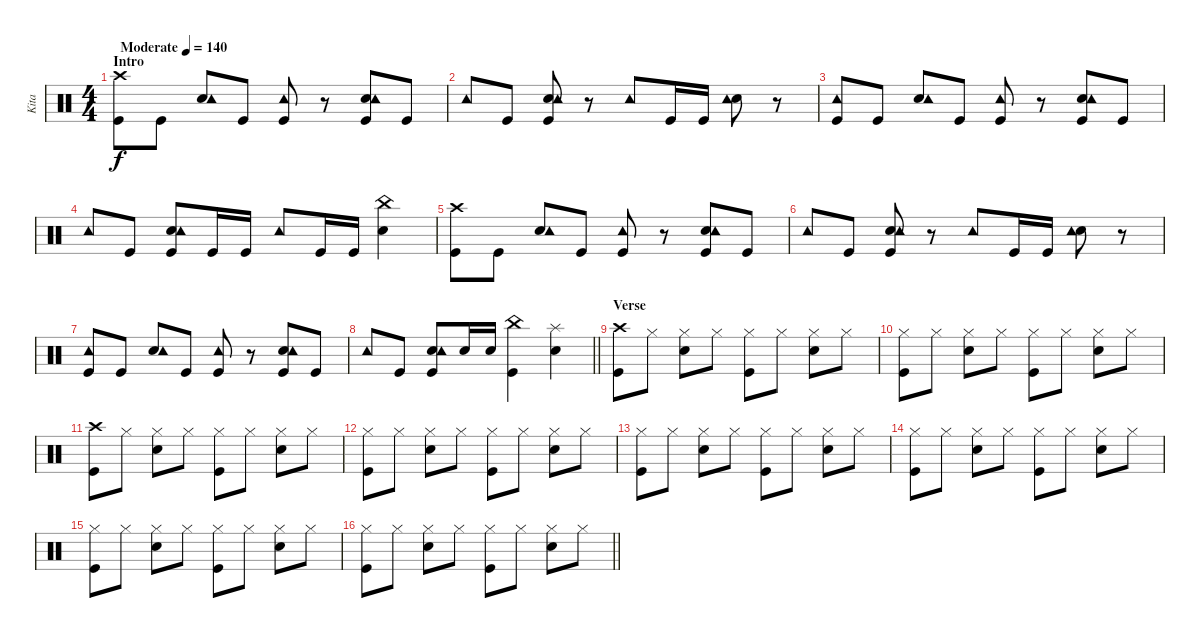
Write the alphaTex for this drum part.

\track ("Kita" "Kita") {instrument percussion}
\staff {score}
\articulation defaults
\ts (4 4)
\section ("" "Intro")
\tempo (140 "Moderate")
\clef neutral
\ks c
("Kick (hit)" "Crash high (hit)").8{dy f} "Kick (hit)".8 ("Snare (hit) 2" "Tambourine (hit)").8 "Kick (hit)".8 ("Kick (hit)" "Tambourine (hit)").8 r.8 ("Kick (hit)" "Snare (hit) 2" "Tambourine (hit)").8 "Kick (hit)".8 |
"Tambourine (hit)".8 "Kick (hit)".8 ("Kick (hit)" "Snare (hit) 2" "Tambourine (hit)").8 r.8 "Tambourine (hit)".8 "Kick (hit)".16 "Kick (hit)".16 ("Snare (hit) 2" "Tambourine (hit)").8 r.8 |
("Kick (hit)" "Tambourine (hit)").8 "Kick (hit)".8 ("Snare (hit) 2" "Tambourine (hit)").8 "Kick (hit)".8 ("Kick (hit)" "Tambourine (hit)").8 r.8 ("Kick (hit)" "Snare (hit) 2" "Tambourine (hit)").8 "Kick (hit)".8 |
"Tambourine (hit)".8 "Kick (hit)".8 ("Kick (hit)" "Snare (hit) 2" "Tambourine (hit)").8 "Kick (hit)".16 "Kick (hit)".16 "Tambourine (hit)".8 "Kick (hit)".16 "Kick (hit)".16 ("Snare (hit) 2" "China (hit)").4 |
("Kick (hit)" "Crash high (hit)").8 "Kick (hit)".8 ("Snare (hit) 2" "Tambourine (hit)").8 "Kick (hit)".8 ("Kick (hit)" "Tambourine (hit)").8 r.8 ("Kick (hit)" "Snare (hit) 2" "Tambourine (hit)").8 "Kick (hit)".8 |
"Tambourine (hit)".8 "Kick (hit)".8 ("Kick (hit)" "Snare (hit) 2" "Tambourine (hit)").8 r.8 "Tambourine (hit)".8 "Kick (hit)".16 "Kick (hit)".16 ("Snare (hit) 2" "Tambourine (hit)").8 r.8 |
("Kick (hit)" "Tambourine (hit)").8 "Kick (hit)".8 ("Snare (hit) 2" "Tambourine (hit)").8 "Kick (hit)".8 ("Kick (hit)" "Tambourine (hit)").8 r.8 ("Kick (hit)" "Snare (hit) 2" "Tambourine (hit)").8 "Kick (hit)".8 |
\barLineRight lightlight "Tambourine (hit)".8 "Kick (hit)".8
("Kick (hit)" "Snare (hit) 2" "Tambourine (hit)").8 "Snare (hit) 2".16 "Snare (hit) 2".16 ("Kick (hit)" "China (hit)").4 ("Snare (hit) 2" "Splash (hit)").4 |
\section ("" "Verse")
("Crash high (hit)" "Kick (hit)").8 "Hi-Hat (closed)".8 ("Hi-Hat (closed)" "Snare (hit) 2").8 "Hi-Hat (closed)".8 ("Hi-Hat (closed)" "Kick (hit)").8 "Hi-Hat (closed)".8 ("Hi-Hat (closed)" "Snare (hit) 2").8 "Hi-Hat (closed)".8 |
("Hi-Hat (closed)" "Kick (hit)").8 "Hi-Hat (closed)".8 ("Hi-Hat (closed)" "Snare (hit) 2").8 "Hi-Hat (closed)".8 ("Hi-Hat (closed)" "Kick (hit)").8 "Hi-Hat (closed)".8 ("Hi-Hat (closed)" "Snare (hit) 2").8 "Hi-Hat (closed)".8 |
("Crash high (hit)" "Kick (hit)").8 "Hi-Hat (closed)".8 ("Hi-Hat (closed)" "Snare (hit) 2").8 "Hi-Hat (closed)".8 ("Hi-Hat (closed)" "Kick (hit)").8 "Hi-Hat (closed)".8 ("Hi-Hat (closed)" "Snare (hit) 2").8 "Hi-Hat (closed)".8 |
("Hi-Hat (closed)" "Kick (hit)").8 "Hi-Hat (closed)".8 ("Hi-Hat (closed)" "Snare (hit) 2").8 "Hi-Hat (closed)".8 ("Hi-Hat (closed)" "Kick (hit)").8 "Hi-Hat (closed)".8 ("Hi-Hat (closed)" "Snare (hit) 2").8 "Hi-Hat (closed)".8 |
("Hi-Hat (closed)" "Kick (hit)").8 "Hi-Hat (closed)".8 ("Hi-Hat (closed)" "Snare (hit) 2").8 "Hi-Hat (closed)".8 ("Hi-Hat (closed)" "Kick (hit)").8 "Hi-Hat (closed)".8 ("Hi-Hat (closed)" "Snare (hit) 2").8 "Hi-Hat (closed)".8 |
("Hi-Hat (closed)" "Kick (hit)").8 "Hi-Hat (closed)".8 ("Hi-Hat (closed)" "Snare (hit) 2").8 "Hi-Hat (closed)".8 ("Hi-Hat (closed)" "Kick (hit)").8 "Hi-Hat (closed)".8 ("Hi-Hat (closed)" "Snare (hit) 2").8 "Hi-Hat (closed)".8 |
("Hi-Hat (closed)" "Kick (hit)").8 "Hi-Hat (closed)".8 ("Hi-Hat (closed)" "Snare (hit) 2").8 "Hi-Hat (closed)".8 ("Hi-Hat (closed)" "Kick (hit)").8 "Hi-Hat (closed)".8 ("Hi-Hat (closed)" "Snare (hit) 2").8 "Hi-Hat (closed)".8 |
\barLineRight lightlight
("Hi-Hat (closed)" "Kick (hit)").8 "Hi-Hat (closed)".8 ("Hi-Hat (closed)" "Snare (hit) 2").8 "Hi-Hat (closed)".8 ("Hi-Hat (closed)" "Kick (hit)").8 "Hi-Hat (closed)".8 ("Hi-Hat (closed)" "Snare (hit) 2").8 "Hi-Hat (closed)".8
